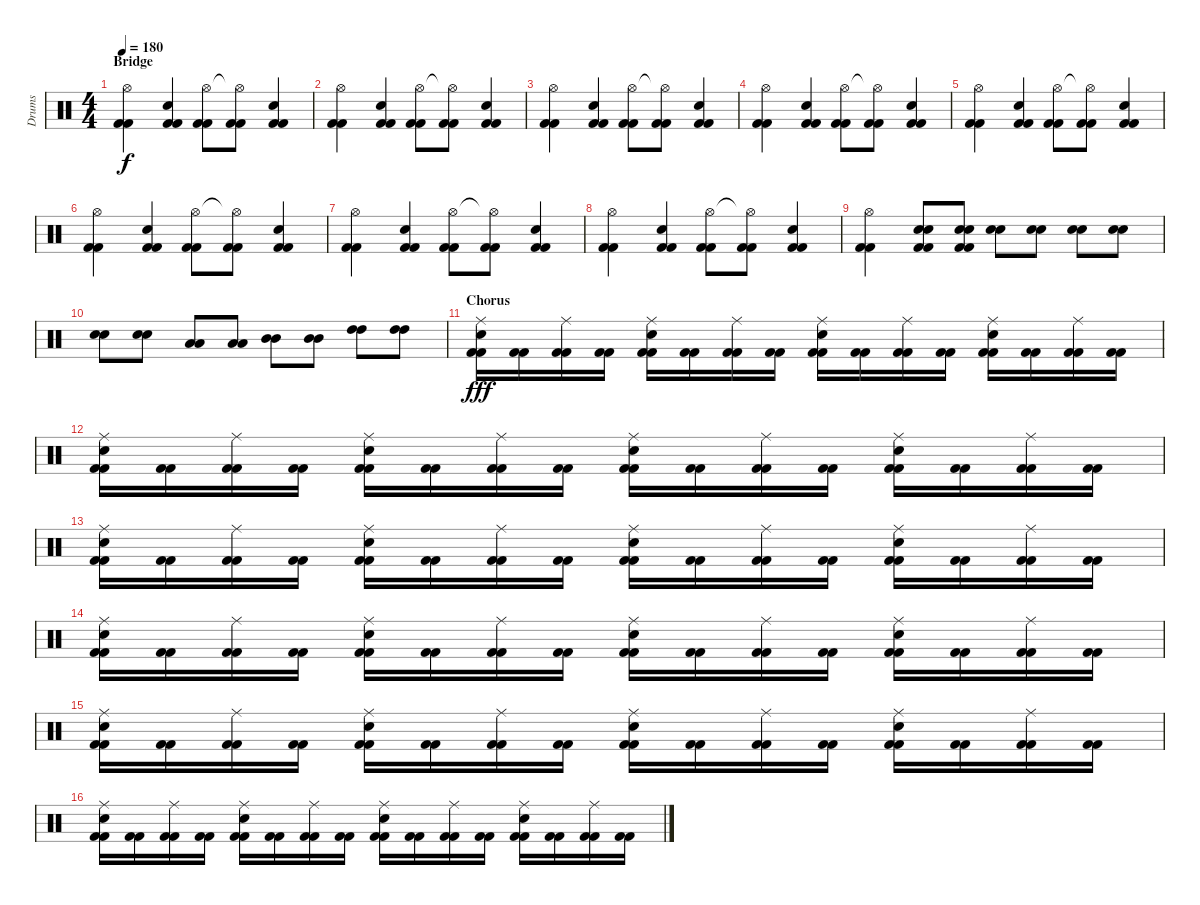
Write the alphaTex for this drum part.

\track ("Drums" "Drums") {instrument percussion}
\staff {score}
\articulation defaults
\ts (4 4)
\section ("" "Bridge")
\tempo 180
\clef neutral
\ks c
("Hi-Hat (open)" "Kick (hit) 2" "Kick (hit) 2").4{dy f} ("Snare (hit) 2" "Kick (hit) 2" "Kick (hit) 2").4 ("Hi-Hat (open)" "Kick (hit) 2" "Kick (hit) 2").8 ("Hi-Hat (open)"{t} "Kick (hit) 2" "Kick (hit) 2").8 ("Snare (hit) 2" "Kick (hit) 2" "Kick (hit) 2").4 |
("Hi-Hat (open)" "Kick (hit) 2" "Kick (hit) 2").4 ("Snare (hit) 2" "Kick (hit) 2" "Kick (hit) 2").4 ("Hi-Hat (open)" "Kick (hit) 2" "Kick (hit) 2").8 ("Hi-Hat (open)"{t} "Kick (hit) 2" "Kick (hit) 2").8 ("Snare (hit) 2" "Kick (hit) 2" "Kick (hit) 2").4 |
("Hi-Hat (open)" "Kick (hit) 2" "Kick (hit) 2").4 ("Snare (hit) 2" "Kick (hit) 2" "Kick (hit) 2").4 ("Hi-Hat (open)" "Kick (hit) 2" "Kick (hit) 2").8 ("Hi-Hat (open)"{t} "Kick (hit) 2" "Kick (hit) 2").8 ("Snare (hit) 2" "Kick (hit) 2" "Kick (hit) 2").4 |
("Hi-Hat (open)" "Kick (hit) 2" "Kick (hit) 2").4 ("Snare (hit) 2" "Kick (hit) 2" "Kick (hit) 2").4 ("Hi-Hat (open)" "Kick (hit) 2" "Kick (hit) 2").8 ("Hi-Hat (open)"{t} "Kick (hit) 2" "Kick (hit) 2").8 ("Snare (hit) 2" "Kick (hit) 2" "Kick (hit) 2").4 |
("Hi-Hat (open)" "Kick (hit) 2" "Kick (hit) 2").4 ("Snare (hit) 2" "Kick (hit) 2" "Kick (hit) 2").4 ("Hi-Hat (open)" "Kick (hit) 2" "Kick (hit) 2").8 ("Hi-Hat (open)"{t} "Kick (hit) 2" "Kick (hit) 2").8 ("Snare (hit) 2" "Kick (hit) 2" "Kick (hit) 2").4 |
("Hi-Hat (open)" "Kick (hit) 2" "Kick (hit) 2").4 ("Snare (hit) 2" "Kick (hit) 2" "Kick (hit) 2").4 ("Hi-Hat (open)" "Kick (hit) 2" "Kick (hit) 2").8 ("Hi-Hat (open)"{t} "Kick (hit) 2" "Kick (hit) 2").8 ("Snare (hit) 2" "Kick (hit) 2" "Kick (hit) 2").4 |
("Hi-Hat (open)" "Kick (hit) 2" "Kick (hit) 2").4 ("Snare (hit) 2" "Kick (hit) 2" "Kick (hit) 2").4 ("Hi-Hat (open)" "Kick (hit) 2" "Kick (hit) 2").8 ("Hi-Hat (open)"{t} "Kick (hit) 2" "Kick (hit) 2").8 ("Snare (hit) 2" "Kick (hit) 2" "Kick (hit) 2").4 |
("Hi-Hat (open)" "Kick (hit) 2" "Kick (hit) 2").4 ("Snare (hit) 2" "Kick (hit) 2" "Kick (hit) 2").4 ("Hi-Hat (open)" "Kick (hit) 2" "Kick (hit) 2").8 ("Hi-Hat (open)"{t} "Kick (hit) 2" "Kick (hit) 2").8 ("Snare (hit) 2" "Kick (hit) 2" "Kick (hit) 2").4 |
("Hi-Hat (open)" "Kick (hit) 2" "Kick (hit) 2").4 ("Snare (hit) 2" "Snare (hit) 2" "Kick (hit) 2" "Kick (hit) 2").8 ("Snare (hit) 2" "Snare (hit) 2" "Kick (hit) 2" "Kick (hit) 2").8 ("Snare (hit) 2" "Snare (hit) 2").8 ("Snare (hit) 2" "Snare (hit) 2").8 ("Snare (hit) 2" "Snare (hit) 2").8 ("Snare (hit) 2" "Snare (hit) 2").8 |
("Snare (hit) 2" "Snare (hit) 2").8 ("Snare (hit) 2" "Snare (hit) 2").8 ("Low Tom (hit)" "Low Tom (hit)").8 ("Low Tom (hit)" "Low Tom (hit)").8 ("Mid Tom (hit)" "Mid Tom (hit)").8 ("Mid Tom (hit)" "Mid Tom (hit)").8 ("High Tom (hit)" "High Tom (hit)").8 ("High Tom (hit)" "High Tom (hit)").8 |
\section ("" "Chorus")
("Kick (hit) 2" "Kick (hit) 2" "Electric Snare (hit)" "Ride (middle)").16{dy fff} ("Kick (hit) 2" "Kick (hit) 2").16 ("Kick (hit) 2" "Kick (hit) 2" "Ride (middle)").16 ("Kick (hit) 2" "Kick (hit) 2").16 ("Kick (hit) 2" "Kick (hit) 2" "Electric Snare (hit)" "Ride (middle)").16 ("Kick (hit) 2" "Kick (hit) 2").16 ("Kick (hit) 2" "Kick (hit) 2" "Ride (middle)").16 ("Kick (hit) 2" "Kick (hit) 2").16 ("Kick (hit) 2" "Kick (hit) 2" "Electric Snare (hit)" "Ride (middle)").16 ("Kick (hit) 2" "Kick (hit) 2").16 ("Kick (hit) 2" "Kick (hit) 2" "Ride (middle)").16 ("Kick (hit) 2" "Kick (hit) 2").16 ("Kick (hit) 2" "Kick (hit) 2" "Electric Snare (hit)" "Ride (middle)").16 ("Kick (hit) 2" "Kick (hit) 2").16 ("Kick (hit) 2" "Kick (hit) 2" "Ride (middle)").16 ("Kick (hit) 2" "Kick (hit) 2").16 |
("Kick (hit) 2" "Kick (hit) 2" "Electric Snare (hit)" "Ride (middle)").16 ("Kick (hit) 2" "Kick (hit) 2").16 ("Kick (hit) 2" "Kick (hit) 2" "Ride (middle)").16 ("Kick (hit) 2" "Kick (hit) 2").16 ("Kick (hit) 2" "Kick (hit) 2" "Electric Snare (hit)" "Ride (middle)").16 ("Kick (hit) 2" "Kick (hit) 2").16 ("Kick (hit) 2" "Kick (hit) 2" "Ride (middle)").16 ("Kick (hit) 2" "Kick (hit) 2").16 ("Kick (hit) 2" "Kick (hit) 2" "Electric Snare (hit)" "Ride (middle)").16 ("Kick (hit) 2" "Kick (hit) 2").16 ("Kick (hit) 2" "Kick (hit) 2" "Ride (middle)").16 ("Kick (hit) 2" "Kick (hit) 2").16 ("Kick (hit) 2" "Kick (hit) 2" "Electric Snare (hit)" "Ride (middle)").16 ("Kick (hit) 2" "Kick (hit) 2").16 ("Kick (hit) 2" "Kick (hit) 2" "Ride (middle)").16 ("Kick (hit) 2" "Kick (hit) 2").16 |
("Kick (hit) 2" "Kick (hit) 2" "Electric Snare (hit)" "Ride (middle)").16 ("Kick (hit) 2" "Kick (hit) 2").16 ("Kick (hit) 2" "Kick (hit) 2" "Ride (middle)").16 ("Kick (hit) 2" "Kick (hit) 2").16 ("Kick (hit) 2" "Kick (hit) 2" "Electric Snare (hit)" "Ride (middle)").16 ("Kick (hit) 2" "Kick (hit) 2").16 ("Kick (hit) 2" "Kick (hit) 2" "Ride (middle)").16 ("Kick (hit) 2" "Kick (hit) 2").16 ("Kick (hit) 2" "Kick (hit) 2" "Electric Snare (hit)" "Ride (middle)").16 ("Kick (hit) 2" "Kick (hit) 2").16 ("Kick (hit) 2" "Kick (hit) 2" "Ride (middle)").16 ("Kick (hit) 2" "Kick (hit) 2").16 ("Kick (hit) 2" "Kick (hit) 2" "Electric Snare (hit)" "Ride (middle)").16 ("Kick (hit) 2" "Kick (hit) 2").16 ("Kick (hit) 2" "Kick (hit) 2" "Ride (middle)").16 ("Kick (hit) 2" "Kick (hit) 2").16 |
("Kick (hit) 2" "Kick (hit) 2" "Electric Snare (hit)" "Ride (middle)").16 ("Kick (hit) 2" "Kick (hit) 2").16 ("Kick (hit) 2" "Kick (hit) 2" "Ride (middle)").16 ("Kick (hit) 2" "Kick (hit) 2").16 ("Kick (hit) 2" "Kick (hit) 2" "Electric Snare (hit)" "Ride (middle)").16 ("Kick (hit) 2" "Kick (hit) 2").16 ("Kick (hit) 2" "Kick (hit) 2" "Ride (middle)").16 ("Kick (hit) 2" "Kick (hit) 2").16 ("Kick (hit) 2" "Kick (hit) 2" "Electric Snare (hit)" "Ride (middle)").16 ("Kick (hit) 2" "Kick (hit) 2").16 ("Kick (hit) 2" "Kick (hit) 2" "Ride (middle)").16 ("Kick (hit) 2" "Kick (hit) 2").16 ("Kick (hit) 2" "Kick (hit) 2" "Electric Snare (hit)" "Ride (middle)").16 ("Kick (hit) 2" "Kick (hit) 2").16 ("Kick (hit) 2" "Kick (hit) 2" "Ride (middle)").16 ("Kick (hit) 2" "Kick (hit) 2").16 |
("Kick (hit) 2" "Kick (hit) 2" "Electric Snare (hit)" "Ride (middle)").16 ("Kick (hit) 2" "Kick (hit) 2").16 ("Kick (hit) 2" "Kick (hit) 2" "Ride (middle)").16 ("Kick (hit) 2" "Kick (hit) 2").16 ("Kick (hit) 2" "Kick (hit) 2" "Electric Snare (hit)" "Ride (middle)").16 ("Kick (hit) 2" "Kick (hit) 2").16 ("Kick (hit) 2" "Kick (hit) 2" "Ride (middle)").16 ("Kick (hit) 2" "Kick (hit) 2").16 ("Kick (hit) 2" "Kick (hit) 2" "Electric Snare (hit)" "Ride (middle)").16 ("Kick (hit) 2" "Kick (hit) 2").16 ("Kick (hit) 2" "Kick (hit) 2" "Ride (middle)").16 ("Kick (hit) 2" "Kick (hit) 2").16 ("Kick (hit) 2" "Kick (hit) 2" "Electric Snare (hit)" "Ride (middle)").16 ("Kick (hit) 2" "Kick (hit) 2").16 ("Kick (hit) 2" "Kick (hit) 2" "Ride (middle)").16 ("Kick (hit) 2" "Kick (hit) 2").16 |
("Kick (hit) 2" "Kick (hit) 2" "Electric Snare (hit)" "Ride (middle)").16 ("Kick (hit) 2" "Kick (hit) 2").16 ("Kick (hit) 2" "Kick (hit) 2" "Ride (middle)").16 ("Kick (hit) 2" "Kick (hit) 2").16 ("Kick (hit) 2" "Kick (hit) 2" "Electric Snare (hit)" "Ride (middle)").16 ("Kick (hit) 2" "Kick (hit) 2").16 ("Kick (hit) 2" "Kick (hit) 2" "Ride (middle)").16 ("Kick (hit) 2" "Kick (hit) 2").16 ("Kick (hit) 2" "Kick (hit) 2" "Electric Snare (hit)" "Ride (middle)").16 ("Kick (hit) 2" "Kick (hit) 2").16 ("Kick (hit) 2" "Kick (hit) 2" "Ride (middle)").16 ("Kick (hit) 2" "Kick (hit) 2").16 ("Kick (hit) 2" "Kick (hit) 2" "Electric Snare (hit)" "Ride (middle)").16 ("Kick (hit) 2" "Kick (hit) 2").16 ("Kick (hit) 2" "Kick (hit) 2" "Ride (middle)").16 ("Kick (hit) 2" "Kick (hit) 2").16
